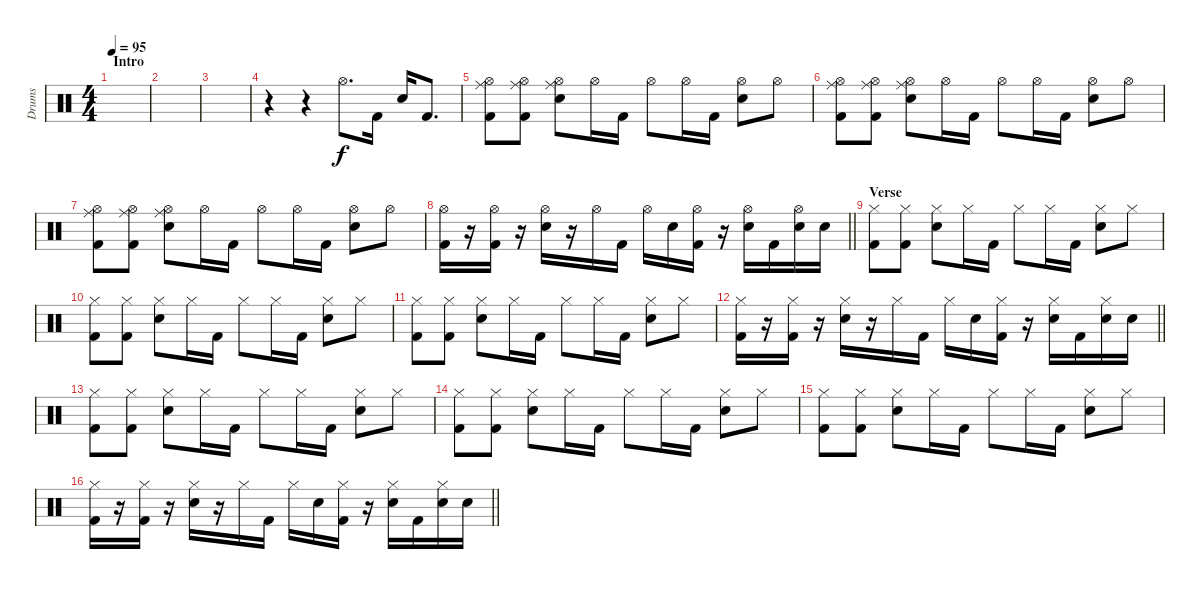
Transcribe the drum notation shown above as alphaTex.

\track ("Drums" "Drums") {instrument percussion}
\staff {score}
\articulation defaults
\ts (4 4)
\section ("" "Intro")
\tempo 95
\clef neutral
\ks c
|
|
|
r.4 r.4 "Hi-Hat (open)".8{d} "Kick (hit) 2".16 "Snare (hit) 2".16 "Kick (hit) 2".8{d} |
("Hi-Hat (open)" "Ride (middle)" "Kick (hit) 2").8 ("Hi-Hat (open)" "Ride (middle)" "Kick (hit) 2").8 ("Hi-Hat (open)" "Ride (middle)" "Snare (hit) 2").8 "Hi-Hat (open)".16 "Kick (hit) 2".16 "Hi-Hat (open)".8 "Hi-Hat (open)".16 "Kick (hit) 2".16 ("Hi-Hat (open)" "Snare (hit) 2").8 "Hi-Hat (open)".8 |
("Hi-Hat (open)" "Ride (middle)" "Kick (hit) 2").8 ("Hi-Hat (open)" "Ride (middle)" "Kick (hit) 2").8 ("Hi-Hat (open)" "Ride (middle)" "Snare (hit) 2").8 "Hi-Hat (open)".16 "Kick (hit) 2".16 "Hi-Hat (open)".8 "Hi-Hat (open)".16 "Kick (hit) 2".16 ("Hi-Hat (open)" "Snare (hit) 2").8 "Hi-Hat (open)".8 |
("Hi-Hat (open)" "Ride (middle)" "Kick (hit) 2").8 ("Hi-Hat (open)" "Ride (middle)" "Kick (hit) 2").8 ("Hi-Hat (open)" "Ride (middle)" "Snare (hit) 2").8 "Hi-Hat (open)".16 "Kick (hit) 2".16 "Hi-Hat (open)".8 "Hi-Hat (open)".16 "Kick (hit) 2".16 ("Hi-Hat (open)" "Snare (hit) 2").8 "Hi-Hat (open)".8 |
\barLineRight lightlight
("Hi-Hat (open)" "Kick (hit) 2").16 r.16 ("Hi-Hat (open)" "Kick (hit) 2").16 r.16 ("Hi-Hat (open)" "Snare (hit) 2").16 r.16 "Hi-Hat (open)".16 "Kick (hit) 2".16 "Hi-Hat (open)".16 "Snare (hit) 2".16 ("Hi-Hat (open)" "Kick (hit) 2").16 r.16 ("Hi-Hat (open)" "Snare (hit) 2").16 "Kick (hit) 2".16 ("Hi-Hat (open)" "Snare (hit) 2").16 "Snare (hit) 2".16 |
\section ("" "Verse")
("Hi-Hat (closed)" "Kick (hit) 2").8 ("Hi-Hat (closed)" "Kick (hit) 2").8 ("Hi-Hat (closed)" "Snare (hit) 2").8 "Hi-Hat (closed)".16 "Kick (hit) 2".16 "Hi-Hat (closed)".8 "Hi-Hat (closed)".16 "Kick (hit) 2".16 ("Hi-Hat (closed)" "Snare (hit) 2").8 "Hi-Hat (closed)".8 |
("Hi-Hat (closed)" "Kick (hit) 2").8 ("Hi-Hat (closed)" "Kick (hit) 2").8 ("Hi-Hat (closed)" "Snare (hit) 2").8 "Hi-Hat (closed)".16 "Kick (hit) 2".16 "Hi-Hat (closed)".8 "Hi-Hat (closed)".16 "Kick (hit) 2".16 ("Hi-Hat (closed)" "Snare (hit) 2").8 "Hi-Hat (closed)".8 |
("Hi-Hat (closed)" "Kick (hit) 2").8 ("Hi-Hat (closed)" "Kick (hit) 2").8 ("Hi-Hat (closed)" "Snare (hit) 2").8 "Hi-Hat (closed)".16 "Kick (hit) 2".16 "Hi-Hat (closed)".8 "Hi-Hat (closed)".16 "Kick (hit) 2".16 ("Hi-Hat (closed)" "Snare (hit) 2").8 "Hi-Hat (closed)".8 |
\barLineRight lightlight
("Hi-Hat (closed)" "Kick (hit) 2").16 r.16 ("Hi-Hat (closed)" "Kick (hit) 2").16 r.16 ("Hi-Hat (closed)" "Snare (hit) 2").16 r.16 "Hi-Hat (closed)".16 "Kick (hit) 2".16 "Hi-Hat (closed)".16 "Snare (hit) 2".16 ("Hi-Hat (closed)" "Kick (hit) 2").16 r.16 ("Hi-Hat (closed)" "Snare (hit) 2").16 "Kick (hit) 2".16 ("Hi-Hat (closed)" "Snare (hit) 2").16 "Snare (hit) 2".16 |
("Hi-Hat (closed)" "Kick (hit) 2").8 ("Hi-Hat (closed)" "Kick (hit) 2").8 ("Hi-Hat (closed)" "Snare (hit) 2").8 "Hi-Hat (closed)".16 "Kick (hit) 2".16 "Hi-Hat (closed)".8 "Hi-Hat (closed)".16 "Kick (hit) 2".16 ("Hi-Hat (closed)" "Snare (hit) 2").8 "Hi-Hat (closed)".8 |
("Hi-Hat (closed)" "Kick (hit) 2").8 ("Hi-Hat (closed)" "Kick (hit) 2").8 ("Hi-Hat (closed)" "Snare (hit) 2").8 "Hi-Hat (closed)".16 "Kick (hit) 2".16 "Hi-Hat (closed)".8 "Hi-Hat (closed)".16 "Kick (hit) 2".16 ("Hi-Hat (closed)" "Snare (hit) 2").8 "Hi-Hat (closed)".8 |
("Hi-Hat (closed)" "Kick (hit) 2").8 ("Hi-Hat (closed)" "Kick (hit) 2").8 ("Hi-Hat (closed)" "Snare (hit) 2").8 "Hi-Hat (closed)".16 "Kick (hit) 2".16 "Hi-Hat (closed)".8 "Hi-Hat (closed)".16 "Kick (hit) 2".16 ("Hi-Hat (closed)" "Snare (hit) 2").8 "Hi-Hat (closed)".8 |
\barLineRight lightlight
("Hi-Hat (closed)" "Kick (hit) 2").16 r.16 ("Hi-Hat (closed)" "Kick (hit) 2").16 r.16 ("Hi-Hat (closed)" "Snare (hit) 2").16 r.16 "Hi-Hat (closed)".16 "Kick (hit) 2".16 "Hi-Hat (closed)".16 "Snare (hit) 2".16 ("Hi-Hat (closed)" "Kick (hit) 2").16 r.16 ("Hi-Hat (closed)" "Snare (hit) 2").16 "Kick (hit) 2".16 ("Hi-Hat (closed)" "Snare (hit) 2").16 "Snare (hit) 2".16
